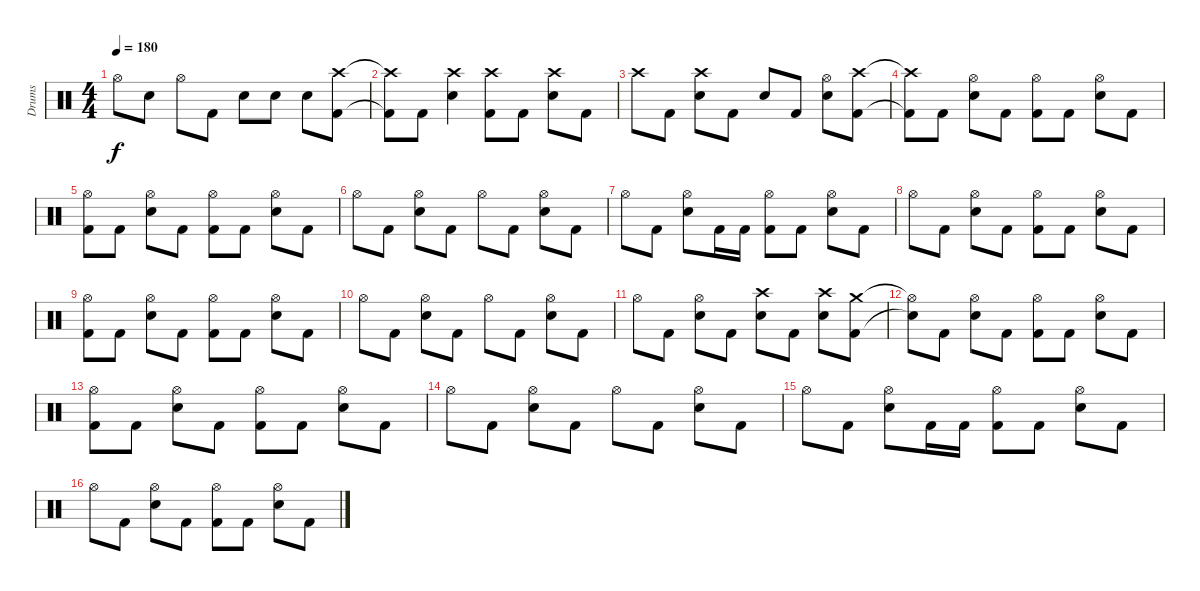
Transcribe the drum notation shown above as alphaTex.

\track ("Drums" "Drums") {instrument percussion}
\staff {score}
\articulation defaults
\ts (4 4)
\tempo 180
\clef neutral
\ks c "Hi-Hat (open)".8{dy f} "Electric Snare (hit)".8 "Hi-Hat (open)".8 "Kick (hit) 2".8 "Electric Snare (hit)".8 "Electric Snare (hit)".8 "Electric Snare (hit)".8
("Crash high (hit)" "Kick (hit) 2").8 |
("Crash high (hit)"{t} "Kick (hit) 2"{t}).8 "Kick (hit) 2".8 ("Crash high (hit)" "Electric Snare (hit)").4 ("Crash high (hit)" "Kick (hit) 2").8 "Kick (hit) 2".8 ("Crash high (hit)" "Electric Snare (hit)").8 "Kick (hit) 2".8 |
"Crash high (hit)".8 "Kick (hit) 2".8 ("Crash high (hit)" "Electric Snare (hit)").8 "Kick (hit) 2".8 "Electric Snare (hit)".8 "Kick (hit) 2".8 ("Hi-Hat (open)" "Electric Snare (hit)").8 ("Crash high (hit)" "Kick (hit) 2").8 |
("Crash high (hit)"{t} "Kick (hit) 2"{t}).8 "Kick (hit) 2".8 ("Hi-Hat (open)" "Electric Snare (hit)").8 "Kick (hit) 2".8 ("Hi-Hat (open)" "Kick (hit) 2").8 "Kick (hit) 2".8 ("Hi-Hat (open)" "Electric Snare (hit)").8 "Kick (hit) 2".8 |
("Hi-Hat (open)" "Kick (hit) 2").8 "Kick (hit) 2".8 ("Hi-Hat (open)" "Electric Snare (hit)").8 "Kick (hit) 2".8 ("Hi-Hat (open)" "Kick (hit) 2").8 "Kick (hit) 2".8 ("Hi-Hat (open)" "Electric Snare (hit)").8 "Kick (hit) 2".8 |
"Hi-Hat (open)".8 "Kick (hit) 2".8 ("Hi-Hat (open)" "Electric Snare (hit)").8 "Kick (hit) 2".8 "Hi-Hat (open)".8 "Kick (hit) 2".8 ("Hi-Hat (open)" "Electric Snare (hit)").8 "Kick (hit) 2".8 |
"Hi-Hat (open)".8 "Kick (hit) 2".8 ("Hi-Hat (open)" "Electric Snare (hit)").8 "Kick (hit) 2".16 "Kick (hit) 2".16 ("Hi-Hat (open)" "Kick (hit) 2").8 "Kick (hit) 2".8 ("Hi-Hat (open)" "Electric Snare (hit)").8 "Kick (hit) 2".8 |
"Hi-Hat (open)".8 "Kick (hit) 2".8 ("Hi-Hat (open)" "Electric Snare (hit)").8 "Kick (hit) 2".8 ("Hi-Hat (open)" "Kick (hit) 2").8 "Kick (hit) 2".8 ("Hi-Hat (open)" "Electric Snare (hit)").8 "Kick (hit) 2".8 |
("Hi-Hat (open)" "Kick (hit) 2").8 "Kick (hit) 2".8 ("Hi-Hat (open)" "Electric Snare (hit)").8 "Kick (hit) 2".8 ("Hi-Hat (open)" "Kick (hit) 2").8 "Kick (hit) 2".8 ("Hi-Hat (open)" "Electric Snare (hit)").8 "Kick (hit) 2".8 |
"Hi-Hat (open)".8 "Kick (hit) 2".8 ("Hi-Hat (open)" "Electric Snare (hit)").8 "Kick (hit) 2".8 "Hi-Hat (open)".8 "Kick (hit) 2".8 ("Hi-Hat (open)" "Electric Snare (hit)").8 "Kick (hit) 2".8 |
"Hi-Hat (open)".8 "Kick (hit) 2".8 ("Hi-Hat (open)" "Electric Snare (hit)").8 "Kick (hit) 2".8 ("Crash high (hit)" "Electric Snare (hit)").8 "Kick (hit) 2".8 ("Crash high (hit)" "Electric Snare (hit)").8 ("Crash medium (hit)" "Kick (hit) 2").8 |
("Hi-Hat (open)"{t} "Snare (hit)"{t}).8 "Kick (hit) 2".8 ("Hi-Hat (open)" "Electric Snare (hit)").8 "Kick (hit) 2".8 ("Hi-Hat (open)" "Kick (hit) 2").8 "Kick (hit) 2".8 ("Hi-Hat (open)" "Electric Snare (hit)").8 "Kick (hit) 2".8 |
("Hi-Hat (open)" "Kick (hit) 2").8 "Kick (hit) 2".8 ("Hi-Hat (open)" "Electric Snare (hit)").8 "Kick (hit) 2".8 ("Hi-Hat (open)" "Kick (hit) 2").8 "Kick (hit) 2".8 ("Hi-Hat (open)" "Electric Snare (hit)").8 "Kick (hit) 2".8 |
"Hi-Hat (open)".8 "Kick (hit) 2".8 ("Hi-Hat (open)" "Electric Snare (hit)").8 "Kick (hit) 2".8 "Hi-Hat (open)".8 "Kick (hit) 2".8 ("Hi-Hat (open)" "Electric Snare (hit)").8 "Kick (hit) 2".8 |
"Hi-Hat (open)".8 "Kick (hit) 2".8 ("Hi-Hat (open)" "Electric Snare (hit)").8 "Kick (hit) 2".16 "Kick (hit) 2".16 ("Hi-Hat (open)" "Kick (hit) 2").8 "Kick (hit) 2".8 ("Hi-Hat (open)" "Electric Snare (hit)").8 "Kick (hit) 2".8 |
"Hi-Hat (open)".8 "Kick (hit) 2".8 ("Hi-Hat (open)" "Electric Snare (hit)").8 "Kick (hit) 2".8 ("Hi-Hat (open)" "Kick (hit) 2").8 "Kick (hit) 2".8 ("Hi-Hat (open)" "Electric Snare (hit)").8 "Kick (hit) 2".8
